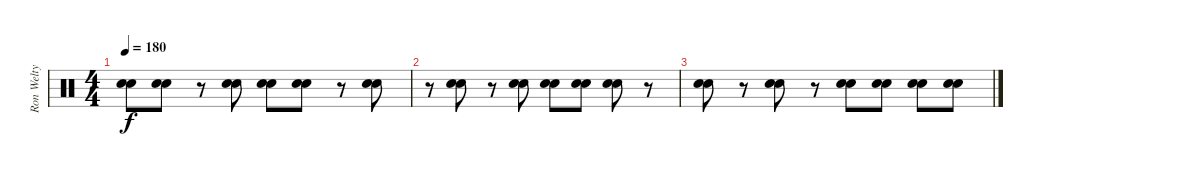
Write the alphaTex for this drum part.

\track ("Ron Welty (Drums)" "Ron Welty ") {instrument percussion}
\staff {score}
\articulation defaults
\ts (4 4)
\tempo 180
\clef neutral
\ks c
("Electric Snare (hit)" "Snare (hit) 2").8{dy f} ("Electric Snare (hit)" "Snare (hit) 2").8 r.8 ("Electric Snare (hit)" "Snare (hit) 2").8 ("Electric Snare (hit)" "Snare (hit) 2").8 ("Electric Snare (hit)" "Snare (hit) 2").8 r.8 ("Electric Snare (hit)" "Snare (hit) 2").8 |
r.8 ("Electric Snare (hit)" "Snare (hit) 2").8 r.8 ("Electric Snare (hit)" "Snare (hit) 2").8 ("Electric Snare (hit)" "Snare (hit) 2").8 ("Electric Snare (hit)" "Snare (hit) 2").8 ("Electric Snare (hit)" "Snare (hit) 2").8 r.8 |
("Electric Snare (hit)" "Snare (hit) 2").8 r.8 ("Electric Snare (hit)" "Snare (hit) 2").8 r.8 ("Electric Snare (hit)" "Snare (hit) 2").8 ("Electric Snare (hit)" "Snare (hit) 2").8 ("Electric Snare (hit)" "Snare (hit) 2").8 ("Electric Snare (hit)" "Snare (hit) 2").8
